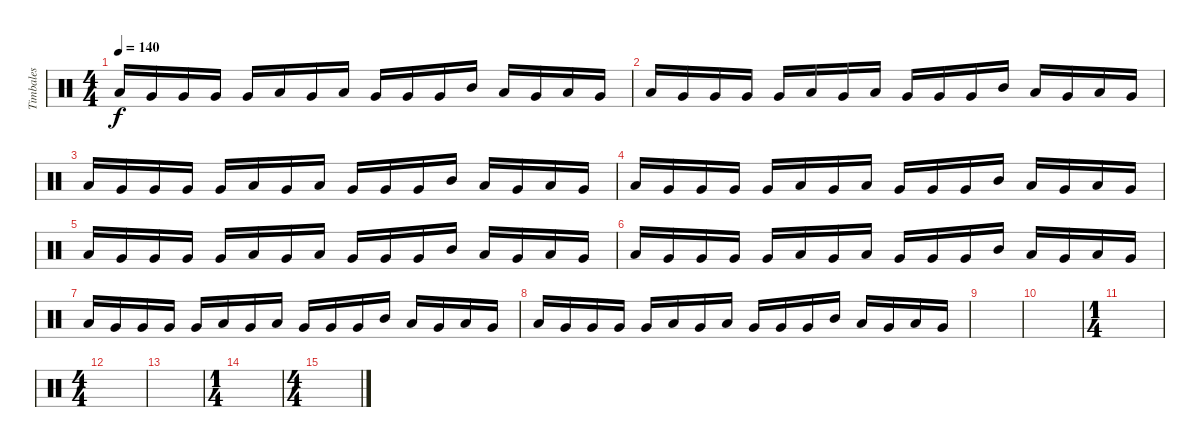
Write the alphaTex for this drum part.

\track ("Timbales" "Timbales") {instrument percussion}
\staff {score}
\articulation defaults
\ts (4 4)
\tempo 140
\clef neutral
\ks c "Low Tom (hit)".16{dy f} "Very Low Tom (hit)".16 "Very Low Tom (hit)".16 "Very Low Tom (hit)".16 "Very Low Tom (hit)".16 "Low Tom (hit)".16 "Very Low Tom (hit)".16 "Low Tom (hit)".16 "Very Low Tom (hit)".16 "Very Low Tom (hit)".16 "Very Low Tom (hit)".16 "Mid Tom (hit)".16 "Low Tom (hit)".16 "Very Low Tom (hit)".16 "Low Floor Tom (hit)".16 "Very Low Tom (hit)".16
|
"Low Tom (hit)".16 "Very Low Tom (hit)".16 "Very Low Tom (hit)".16 "Very Low Tom (hit)".16 "Very Low Tom (hit)".16 "Low Tom (hit)".16 "Very Low Tom (hit)".16 "Low Tom (hit)".16 "Very Low Tom (hit)".16 "Very Low Tom (hit)".16 "Very Low Tom (hit)".16 "Mid Tom (hit)".16 "Low Tom (hit)".16 "Very Low Tom (hit)".16 "Low Floor Tom (hit)".16 "Very Low Tom (hit)".16 |
"Low Tom (hit)".16 "Very Low Tom (hit)".16 "Very Low Tom (hit)".16 "Very Low Tom (hit)".16 "Very Low Tom (hit)".16 "Low Tom (hit)".16 "Very Low Tom (hit)".16 "Low Tom (hit)".16 "Very Low Tom (hit)".16 "Very Low Tom (hit)".16 "Very Low Tom (hit)".16 "Mid Tom (hit)".16 "Low Tom (hit)".16 "Very Low Tom (hit)".16 "Low Floor Tom (hit)".16 "Very Low Tom (hit)".16 |
"Low Tom (hit)".16 "Very Low Tom (hit)".16 "Very Low Tom (hit)".16 "Very Low Tom (hit)".16 "Very Low Tom (hit)".16 "Low Tom (hit)".16 "Very Low Tom (hit)".16 "Low Tom (hit)".16 "Very Low Tom (hit)".16 "Very Low Tom (hit)".16 "Very Low Tom (hit)".16 "Mid Tom (hit)".16 "Low Tom (hit)".16 "Very Low Tom (hit)".16 "Low Floor Tom (hit)".16 "Very Low Tom (hit)".16 |
"Low Tom (hit)".16 "Very Low Tom (hit)".16 "Very Low Tom (hit)".16 "Very Low Tom (hit)".16 "Very Low Tom (hit)".16 "Low Tom (hit)".16 "Very Low Tom (hit)".16 "Low Tom (hit)".16 "Very Low Tom (hit)".16 "Very Low Tom (hit)".16 "Very Low Tom (hit)".16 "Mid Tom (hit)".16 "Low Tom (hit)".16 "Very Low Tom (hit)".16 "Low Floor Tom (hit)".16 "Very Low Tom (hit)".16 |
"Low Tom (hit)".16 "Very Low Tom (hit)".16 "Very Low Tom (hit)".16 "Very Low Tom (hit)".16 "Very Low Tom (hit)".16 "Low Tom (hit)".16 "Very Low Tom (hit)".16 "Low Tom (hit)".16 "Very Low Tom (hit)".16 "Very Low Tom (hit)".16 "Very Low Tom (hit)".16 "Mid Tom (hit)".16 "Low Tom (hit)".16 "Very Low Tom (hit)".16 "Low Floor Tom (hit)".16 "Very Low Tom (hit)".16 |
"Low Tom (hit)".16 "Very Low Tom (hit)".16 "Very Low Tom (hit)".16 "Very Low Tom (hit)".16 "Very Low Tom (hit)".16 "Low Tom (hit)".16 "Very Low Tom (hit)".16 "Low Tom (hit)".16 "Very Low Tom (hit)".16 "Very Low Tom (hit)".16 "Very Low Tom (hit)".16 "Mid Tom (hit)".16 "Low Tom (hit)".16 "Very Low Tom (hit)".16 "Low Floor Tom (hit)".16 "Very Low Tom (hit)".16 |
"Low Tom (hit)".16 "Very Low Tom (hit)".16 "Very Low Tom (hit)".16 "Very Low Tom (hit)".16 "Very Low Tom (hit)".16 "Low Tom (hit)".16 "Very Low Tom (hit)".16 "Low Tom (hit)".16 "Very Low Tom (hit)".16 "Very Low Tom (hit)".16 "Very Low Tom (hit)".16 "Mid Tom (hit)".16 "Low Tom (hit)".16 "Very Low Tom (hit)".16 "Low Floor Tom (hit)".16 "Very Low Tom (hit)".16 |
|
|
\ts (1 4)
|
\ts (4 4)
|
|
\ts (1 4)
|
\ts (4 4)
